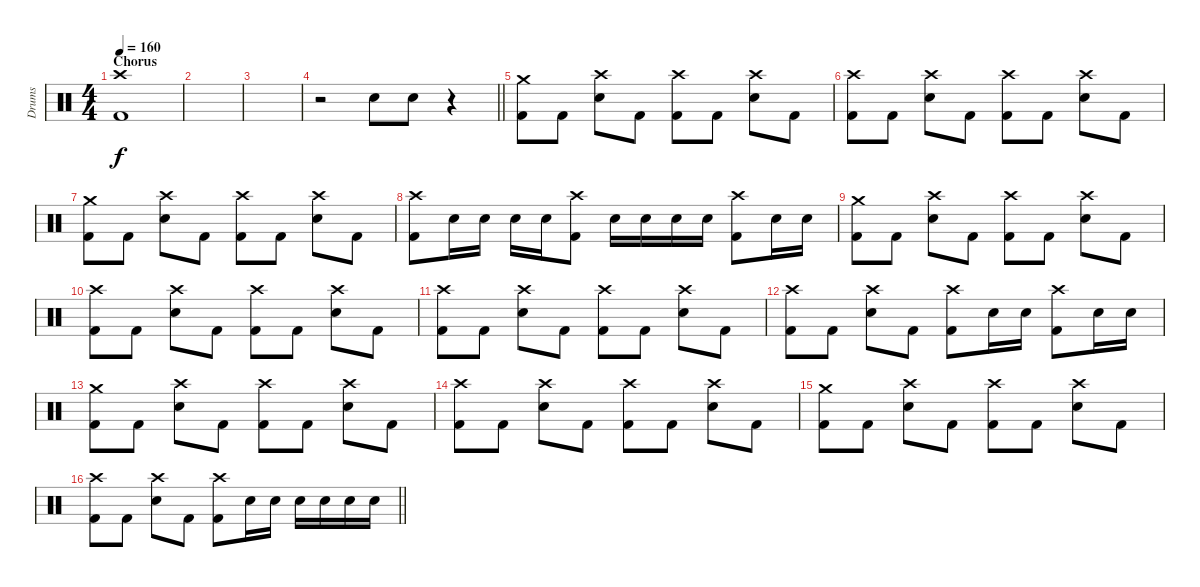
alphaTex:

\track ("Drums" "Drums") {instrument percussion}
\staff {score}
\articulation defaults
\ts (4 4)
\section ("" "Chorus")
\tempo 160
\clef neutral
\ks c
("Crash high (hit)" "Kick (hit) 2").1{dy f} |
|
|
\barLineRight lightlight
r.2 "Electric Snare (hit)".8 "Electric Snare (hit)".8 r.4 |
\section ("" "")
("Crash medium (hit)" "Kick (hit) 2").8 "Kick (hit) 2".8 ("Crash high (hit)" "Electric Snare (hit)").8 "Kick (hit) 2".8 ("Crash high (hit)" "Kick (hit) 2").8 "Kick (hit) 2".8 ("Crash high (hit)" "Electric Snare (hit)").8 "Kick (hit) 2".8 |
("Crash high (hit)" "Kick (hit) 2").8 "Kick (hit) 2".8 ("Crash high (hit)" "Electric Snare (hit)").8 "Kick (hit) 2".8 ("Crash high (hit)" "Kick (hit) 2").8 "Kick (hit) 2".8 ("Crash high (hit)" "Electric Snare (hit)").8 "Kick (hit) 2".8 |
("Crash medium (hit)" "Kick (hit) 2").8 "Kick (hit) 2".8 ("Crash high (hit)" "Electric Snare (hit)").8 "Kick (hit) 2".8 ("Crash high (hit)" "Kick (hit) 2").8 "Kick (hit) 2".8 ("Crash high (hit)" "Electric Snare (hit)").8 "Kick (hit) 2".8 |
("Crash high (hit)" "Kick (hit) 2").8 "Electric Snare (hit)".16 "Electric Snare (hit)".16 "Electric Snare (hit)".16 "Electric Snare (hit)".16 ("Crash high (hit)" "Kick (hit) 2").8 "Electric Snare (hit)".16 "Electric Snare (hit)".16 "Electric Snare (hit)".16 "Electric Snare (hit)".16 ("Crash high (hit)" "Kick (hit) 2").8 "Electric Snare (hit)".16 "Electric Snare (hit)".16 |
("Crash medium (hit)" "Kick (hit) 2").8 "Kick (hit) 2".8 ("Crash high (hit)" "Electric Snare (hit)").8 "Kick (hit) 2".8 ("Crash high (hit)" "Kick (hit) 2").8 "Kick (hit) 2".8 ("Crash high (hit)" "Electric Snare (hit)").8 "Kick (hit) 2".8 |
("Crash high (hit)" "Kick (hit) 2").8 "Kick (hit) 2".8 ("Crash high (hit)" "Electric Snare (hit)").8 "Kick (hit) 2".8 ("Crash high (hit)" "Kick (hit) 2").8 "Kick (hit) 2".8 ("Crash high (hit)" "Electric Snare (hit)").8 "Kick (hit) 2".8 |
("Crash high (hit)" "Kick (hit) 2").8 "Kick (hit) 2".8 ("Crash high (hit)" "Electric Snare (hit)").8 "Kick (hit) 2".8 ("Crash high (hit)" "Kick (hit) 2").8 "Kick (hit) 2".8 ("Crash high (hit)" "Electric Snare (hit)").8 "Kick (hit) 2".8 |
("Crash high (hit)" "Kick (hit) 2").8 "Kick (hit) 2".8 ("Crash high (hit)" "Electric Snare (hit)").8 "Kick (hit) 2".8 ("Crash high (hit)" "Kick (hit) 2").8 "Electric Snare (hit)".16 "Electric Snare (hit)".16 ("Crash high (hit)" "Kick (hit) 2").8 "Electric Snare (hit)".16 "Electric Snare (hit)".16 |
("Crash medium (hit)" "Kick (hit) 2").8 "Kick (hit) 2".8 ("Crash high (hit)" "Electric Snare (hit)").8 "Kick (hit) 2".8 ("Crash high (hit)" "Kick (hit) 2").8 "Kick (hit) 2".8 ("Crash high (hit)" "Electric Snare (hit)").8 "Kick (hit) 2".8 |
("Crash high (hit)" "Kick (hit) 2").8 "Kick (hit) 2".8 ("Crash high (hit)" "Electric Snare (hit)").8 "Kick (hit) 2".8 ("Crash high (hit)" "Kick (hit) 2").8 "Kick (hit) 2".8 ("Crash high (hit)" "Electric Snare (hit)").8 "Kick (hit) 2".8 |
("Crash medium (hit)" "Kick (hit) 2").8 "Kick (hit) 2".8 ("Crash high (hit)" "Electric Snare (hit)").8 "Kick (hit) 2".8 ("Crash high (hit)" "Kick (hit) 2").8 "Kick (hit) 2".8 ("Crash high (hit)" "Electric Snare (hit)").8 "Kick (hit) 2".8 |
\barLineRight lightlight
("Crash high (hit)" "Kick (hit) 2").8 "Kick (hit) 2".8 ("Crash high (hit)" "Electric Snare (hit)").8 "Kick (hit) 2".8 ("Crash high (hit)" "Kick (hit) 2").8 "Electric Snare (hit)".16 "Electric Snare (hit)".16 "Electric Snare (hit)".16 "Electric Snare (hit)".16 "Electric Snare (hit)".16 "Electric Snare (hit)".16
